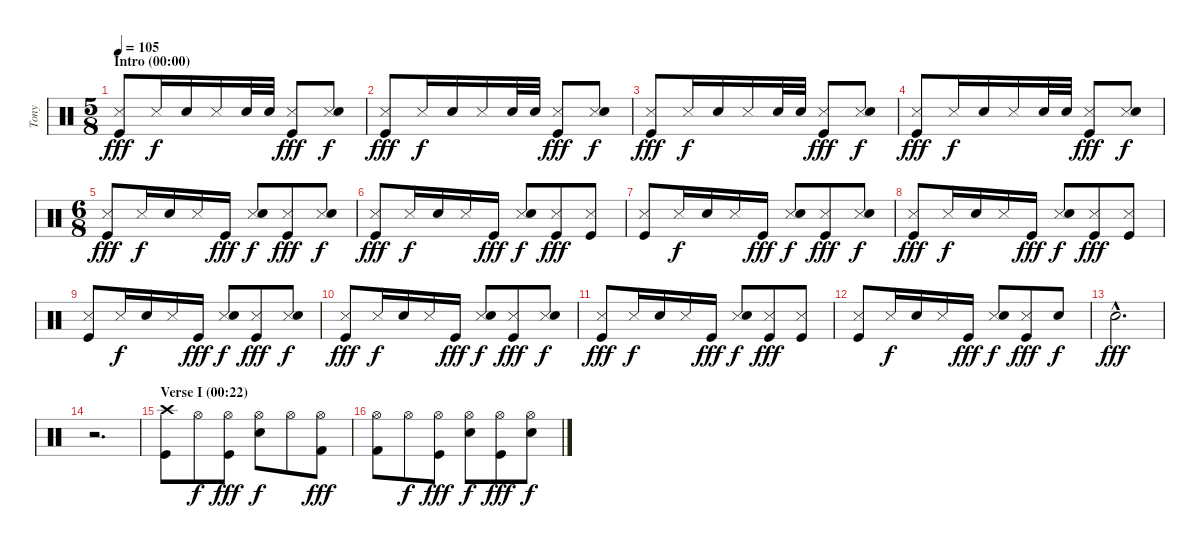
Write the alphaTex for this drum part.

\track ("Tony" "Tony") {instrument percussion}
\staff {score}
\articulation defaults
\ts (5 8)
\section ("" "Intro (00:00)")
\tempo 105
\clef neutral
\ks c
("Snare (side stick) 3" "Kick (hit)").8{dy fff} "Snare (side stick) 3".16{dy f} "Snare (hit) 2".16 "Snare (side stick) 3".16 "Snare (hit) 2".32 "Snare (hit) 2".32 ("Snare (side stick) 3" "Kick (hit)").8{dy fff} ("Snare (side stick) 3" "Snare (hit) 2").8{dy f} |
("Snare (side stick) 3" "Kick (hit)").8{dy fff} "Snare (side stick) 3".16{dy f} "Snare (hit) 2".16 "Snare (side stick) 3".16 "Snare (hit) 2".32 "Snare (hit) 2".32 ("Snare (side stick) 3" "Kick (hit)").8{dy fff} ("Snare (side stick) 3" "Snare (hit) 2").8{dy f} |
("Snare (side stick) 3" "Kick (hit)").8{dy fff} "Snare (side stick) 3".16{dy f} "Snare (hit) 2".16 "Snare (side stick) 3".16 "Snare (hit) 2".32 "Snare (hit) 2".32 ("Snare (side stick) 3" "Kick (hit)").8{dy fff} ("Snare (side stick) 3" "Snare (hit) 2").8{dy f} |
("Snare (side stick) 3" "Kick (hit)").8{dy fff} "Snare (side stick) 3".16{dy f} "Snare (hit) 2".16 "Snare (side stick) 3".16 "Snare (hit) 2".32 "Snare (hit) 2".32 ("Snare (side stick) 3" "Kick (hit)").8{dy fff} ("Snare (side stick) 3" "Snare (hit) 2").8{dy f} |
\ts (6 8)
("Snare (side stick) 3" "Kick (hit)").8{dy fff} "Snare (side stick) 3".16{dy f} "Snare (hit) 2".16 "Snare (side stick) 3".16 "Kick (hit)".16{dy fff} ("Snare (side stick) 3" "Snare (hit) 2").8{dy f} ("Snare (side stick) 3" "Kick (hit)").8{dy fff} ("Snare (side stick) 3" "Snare (hit) 2").8{dy f} |
("Snare (side stick) 3" "Kick (hit)").8{dy fff} "Snare (side stick) 3".16{dy f} "Snare (hit) 2".16 "Snare (side stick) 3".16 "Kick (hit)".16{dy fff} ("Snare (side stick) 3" "Snare (hit) 2").8{dy f} ("Snare (side stick) 3" "Kick (hit)").8{dy fff} ("Snare (side stick) 3" "Kick (hit)").8 |
("Snare (side stick) 3" "Kick (hit)").8 "Snare (side stick) 3".16{dy f} "Snare (hit) 2".16 "Snare (side stick) 3".16 "Kick (hit)".16{dy fff} ("Snare (side stick) 3" "Snare (hit) 2").8{dy f} ("Snare (side stick) 3" "Kick (hit)").8{dy fff} ("Snare (side stick) 3" "Snare (hit) 2").8{dy f} |
("Snare (side stick) 3" "Kick (hit)").8{dy fff} "Snare (side stick) 3".16{dy f} "Snare (hit) 2".16 "Snare (side stick) 3".16 "Kick (hit)".16{dy fff} ("Snare (side stick) 3" "Snare (hit) 2").8{dy f} ("Snare (side stick) 3" "Kick (hit)").8{dy fff} ("Snare (side stick) 3" "Kick (hit)").8 |
("Snare (side stick) 3" "Kick (hit)").8 "Snare (side stick) 3".16{dy f} "Snare (hit) 2".16 "Snare (side stick) 3".16 "Kick (hit)".16{dy fff} ("Snare (side stick) 3" "Snare (hit) 2").8{dy f} ("Snare (side stick) 3" "Kick (hit)").8{dy fff} ("Snare (side stick) 3" "Snare (hit) 2").8{dy f} |
("Snare (side stick) 3" "Kick (hit)").8{dy fff} "Snare (side stick) 3".16{dy f} "Snare (hit) 2".16 "Snare (side stick) 3".16 "Kick (hit)".16{dy fff} ("Snare (side stick) 3" "Snare (hit) 2").8{dy f} ("Snare (side stick) 3" "Kick (hit)").8{dy fff} ("Snare (side stick) 3" "Snare (hit) 2").8{dy f} |
("Snare (side stick) 3" "Kick (hit)").8{dy fff} "Snare (side stick) 3".16{dy f} "Snare (hit) 2".16 "Snare (side stick) 3".16 "Kick (hit)".16{dy fff} ("Snare (side stick) 3" "Snare (hit) 2").8{dy f} ("Snare (side stick) 3" "Kick (hit)").8{dy fff} ("Snare (side stick) 3" "Kick (hit)").8 |
("Snare (side stick) 3" "Kick (hit)").8 "Snare (side stick) 3".16{dy f} "Snare (hit) 2".16 "Snare (side stick) 3".16 "Kick (hit)".16{dy fff} ("Snare (side stick) 3" "Snare (hit) 2").8{dy f} ("Snare (side stick) 3" "Kick (hit)").8{dy fff} "Snare (hit) 2".8{dy f} |
"Snare (hit) 2"{hac}.2{d dy fff} |
r.2{d} |
\section ("" "Verse I (00:22)")
("Crash high (hit)" "Kick (hit)").8 "Hi-Hat (open)".8{dy f} ("Hi-Hat (open)" "Kick (hit)").8{dy fff} ("Hi-Hat (open)" "Snare (hit) 2").8{dy f} "Hi-Hat (open)".8 ("Hi-Hat (open)" "Kick (hit) 2").8{dy fff} |
("Hi-Hat (open)" "Kick (hit) 2").8 "Hi-Hat (open)".8{dy f} ("Hi-Hat (open)" "Kick (hit)").8{dy fff} ("Hi-Hat (open)" "Snare (hit) 2").8{dy f} ("Hi-Hat (open)" "Kick (hit)").8{dy fff} ("Hi-Hat (open)" "Snare (hit) 2").8{dy f}
